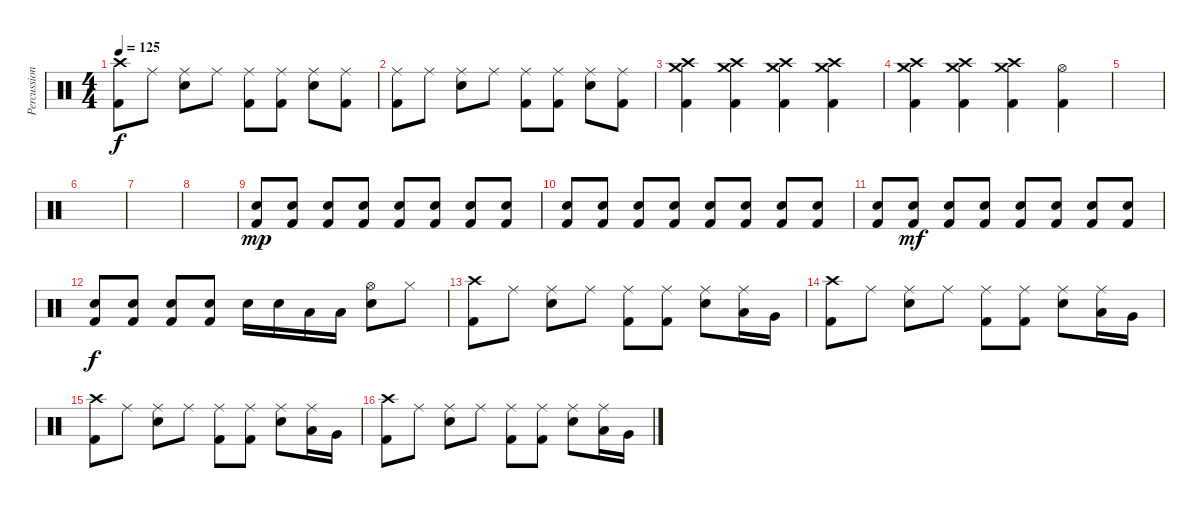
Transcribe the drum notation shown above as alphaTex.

\track ("Percussion" "Percussion") {instrument percussion}
\staff {score}
\articulation defaults
\ts (4 4)
\tempo 125
\clef neutral
\ks c
("Crash high (hit)" "Kick (hit) 2").8{dy f} "Ride (middle)".8 ("Ride (middle)" "Electric Snare (hit)").8 "Ride (middle)".8 ("Ride (middle)" "Kick (hit) 2").8 ("Ride (middle)" "Kick (hit) 2").8 ("Ride (middle)" "Electric Snare (hit)").8 ("Ride (middle)" "Kick (hit) 2").8 |
("Ride (middle)" "Kick (hit) 2").8 "Ride (middle)".8 ("Ride (middle)" "Electric Snare (hit)").8 "Ride (middle)".8 ("Ride (middle)" "Kick (hit) 2").8 ("Ride (middle)" "Kick (hit) 2").8 ("Ride (middle)" "Electric Snare (hit)").8 ("Ride (middle)" "Kick (hit) 2").8 |
("Crash medium (hit)" "Crash high (hit)" "Kick (hit) 2").4 ("Crash medium (hit)" "Crash high (hit)" "Kick (hit) 2").4 ("Crash medium (hit)" "Crash high (hit)" "Kick (hit) 2").4 ("Crash medium (hit)" "Crash high (hit)" "Kick (hit) 2").4 |
("Crash medium (hit)" "Crash high (hit)" "Kick (hit) 2").4 ("Crash medium (hit)" "Crash high (hit)" "Kick (hit) 2").4 ("Crash medium (hit)" "Crash high (hit)" "Kick (hit) 2").4 ("Hi-Hat (open)" "Kick (hit) 2").4 |
|
|
|
|
("Electric Snare (hit)" "Kick (hit) 2").8{dy mp} ("Electric Snare (hit)" "Kick (hit) 2").8 ("Electric Snare (hit)" "Kick (hit) 2").8 ("Electric Snare (hit)" "Kick (hit) 2").8 ("Electric Snare (hit)" "Kick (hit) 2").8 ("Electric Snare (hit)" "Kick (hit) 2").8 ("Electric Snare (hit)" "Kick (hit) 2").8 ("Electric Snare (hit)" "Kick (hit) 2").8 |
("Electric Snare (hit)" "Kick (hit) 2").8 ("Electric Snare (hit)" "Kick (hit) 2").8 ("Electric Snare (hit)" "Kick (hit) 2").8 ("Electric Snare (hit)" "Kick (hit) 2").8 ("Electric Snare (hit)" "Kick (hit) 2").8 ("Electric Snare (hit)" "Kick (hit) 2").8 ("Electric Snare (hit)" "Kick (hit) 2").8 ("Electric Snare (hit)" "Kick (hit) 2").8 |
("Electric Snare (hit)" "Kick (hit) 2").8 ("Electric Snare (hit)" "Kick (hit) 2").8{dy mf} ("Electric Snare (hit)" "Kick (hit) 2").8 ("Electric Snare (hit)" "Kick (hit) 2").8 ("Electric Snare (hit)" "Kick (hit) 2").8 ("Electric Snare (hit)" "Kick (hit) 2").8 ("Electric Snare (hit)" "Kick (hit) 2").8 ("Electric Snare (hit)" "Kick (hit) 2").8 |
("Electric Snare (hit)" "Kick (hit) 2").8{dy f} ("Electric Snare (hit)" "Kick (hit) 2").8 ("Electric Snare (hit)" "Kick (hit) 2").8 ("Electric Snare (hit)" "Kick (hit) 2").8 "Electric Snare (hit)".16 "Electric Snare (hit)".16 "Low Floor Tom (hit)".16 "Low Floor Tom (hit)".16 ("Hi-Hat (open)" "Electric Snare (hit)").8 "Hi-Hat (closed)".8 |
\section ("" "")
("Crash high (hit)" "Kick (hit) 2").8 "Ride (middle)".8 ("Ride (middle)" "Electric Snare (hit)").8 "Ride (middle)".8 ("Ride (middle)" "Kick (hit) 2").8 ("Ride (middle)" "Kick (hit) 2").8 ("Ride (middle)" "Electric Snare (hit)").8 ("Ride (middle)" "Low Tom (hit)").16 "Very Low Tom (hit)".16 |
("Crash high (hit)" "Kick (hit) 2").8 "Ride (middle)".8 ("Ride (middle)" "Electric Snare (hit)").8 "Ride (middle)".8 ("Ride (middle)" "Kick (hit) 2").8 ("Ride (middle)" "Kick (hit) 2").8 ("Ride (middle)" "Electric Snare (hit)").8 ("Ride (middle)" "Low Tom (hit)").16 "Very Low Tom (hit)".16 |
("Crash high (hit)" "Kick (hit) 2").8 "Ride (middle)".8 ("Ride (middle)" "Electric Snare (hit)").8 "Ride (middle)".8 ("Ride (middle)" "Kick (hit) 2").8 ("Ride (middle)" "Kick (hit) 2").8 ("Ride (middle)" "Electric Snare (hit)").8 ("Ride (middle)" "Low Tom (hit)").16 "Very Low Tom (hit)".16 |
("Crash high (hit)" "Kick (hit) 2").8 "Ride (middle)".8 ("Ride (middle)" "Electric Snare (hit)").8 "Ride (middle)".8 ("Ride (middle)" "Kick (hit) 2").8 ("Ride (middle)" "Kick (hit) 2").8 ("Ride (middle)" "Electric Snare (hit)").8 ("Ride (middle)" "Low Tom (hit)").16 "Very Low Tom (hit)".16
